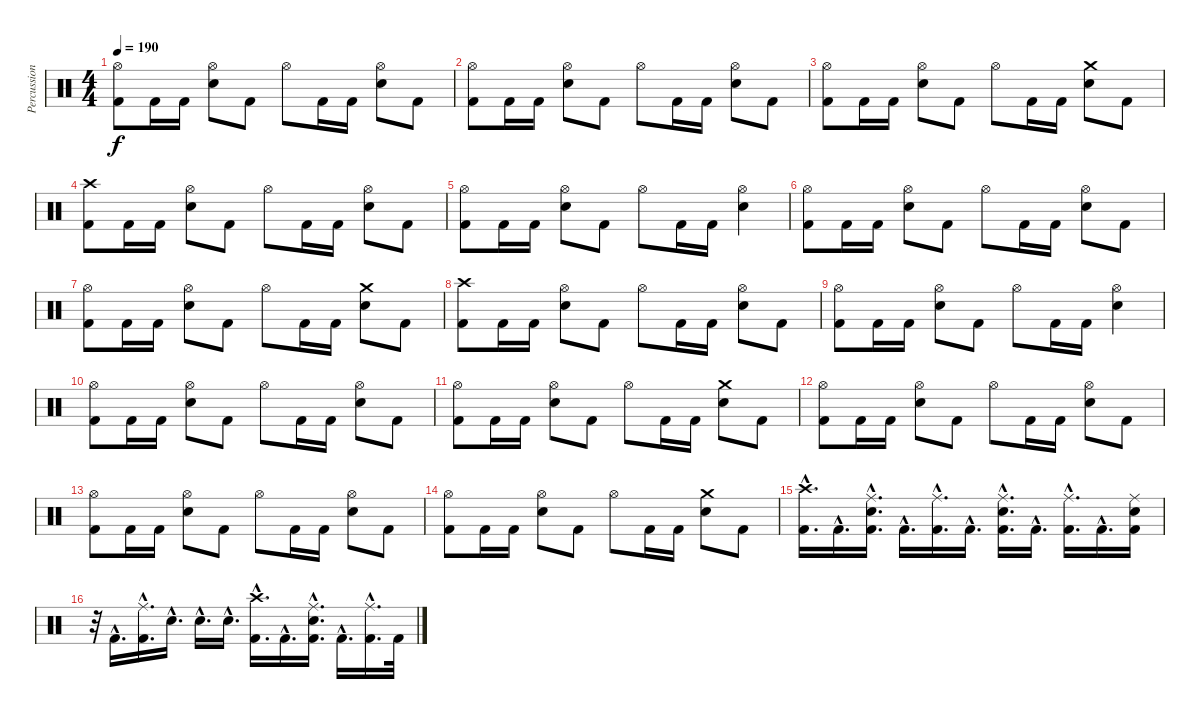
\track ("Percussion" "Percussion") {instrument percussion}
\staff {score}
\articulation defaults
\ts (4 4)
\tempo 190
\clef neutral
\ks c
("Hi-Hat (open)" "Kick (hit) 2").8{dy f} "Kick (hit) 2".16 "Kick (hit) 2".16 ("Hi-Hat (open)" "Snare (hit) 2").8 "Kick (hit) 2".8 "Hi-Hat (open)".8 "Kick (hit) 2".16 "Kick (hit) 2".16 ("Hi-Hat (open)" "Snare (hit) 2").8 "Kick (hit) 2".8 |
("Hi-Hat (open)" "Kick (hit) 2").8 "Kick (hit) 2".16 "Kick (hit) 2".16 ("Hi-Hat (open)" "Snare (hit) 2").8 "Kick (hit) 2".8 "Hi-Hat (open)".8 "Kick (hit) 2".16 "Kick (hit) 2".16 ("Hi-Hat (open)" "Snare (hit) 2").8 "Kick (hit) 2".8 |
("Hi-Hat (open)" "Kick (hit) 2").8 "Kick (hit) 2".16 "Kick (hit) 2".16 ("Hi-Hat (open)" "Snare (hit) 2").8 "Kick (hit) 2".8 "Hi-Hat (open)".8 "Kick (hit) 2".16 "Kick (hit) 2".16 ("Crash medium (hit)" "Snare (hit) 2").8 "Kick (hit) 2".8 |
("Crash high (hit)" "Kick (hit) 2").8 "Kick (hit) 2".16 "Kick (hit) 2".16 ("Hi-Hat (open)" "Snare (hit) 2").8 "Kick (hit) 2".8 "Hi-Hat (open)".8 "Kick (hit) 2".16 "Kick (hit) 2".16 ("Hi-Hat (open)" "Snare (hit) 2").8 "Kick (hit) 2".8 |
("Hi-Hat (open)" "Kick (hit) 2").8 "Kick (hit) 2".16 "Kick (hit) 2".16 ("Hi-Hat (open)" "Snare (hit) 2").8 "Kick (hit) 2".8 "Hi-Hat (open)".8 "Kick (hit) 2".16 "Kick (hit) 2".16 ("Hi-Hat (open)" "Snare (hit) 2").4 |
("Hi-Hat (open)" "Kick (hit) 2").8 "Kick (hit) 2".16 "Kick (hit) 2".16 ("Hi-Hat (open)" "Snare (hit) 2").8 "Kick (hit) 2".8 "Hi-Hat (open)".8 "Kick (hit) 2".16 "Kick (hit) 2".16 ("Hi-Hat (open)" "Snare (hit) 2").8 "Kick (hit) 2".8 |
("Hi-Hat (open)" "Kick (hit) 2").8 "Kick (hit) 2".16 "Kick (hit) 2".16 ("Hi-Hat (open)" "Snare (hit) 2").8 "Kick (hit) 2".8 "Hi-Hat (open)".8 "Kick (hit) 2".16 "Kick (hit) 2".16 ("Crash medium (hit)" "Snare (hit) 2").8 "Kick (hit) 2".8 |
("Crash high (hit)" "Kick (hit) 2").8 "Kick (hit) 2".16 "Kick (hit) 2".16 ("Hi-Hat (open)" "Snare (hit) 2").8 "Kick (hit) 2".8 "Hi-Hat (open)".8 "Kick (hit) 2".16 "Kick (hit) 2".16 ("Hi-Hat (open)" "Snare (hit) 2").8 "Kick (hit) 2".8 |
("Hi-Hat (open)" "Kick (hit) 2").8 "Kick (hit) 2".16 "Kick (hit) 2".16 ("Hi-Hat (open)" "Snare (hit) 2").8 "Kick (hit) 2".8 "Hi-Hat (open)".8 "Kick (hit) 2".16 "Kick (hit) 2".16 ("Hi-Hat (open)" "Snare (hit) 2").4 |
("Hi-Hat (open)" "Kick (hit) 2").8 "Kick (hit) 2".16 "Kick (hit) 2".16 ("Hi-Hat (open)" "Snare (hit) 2").8 "Kick (hit) 2".8 "Hi-Hat (open)".8 "Kick (hit) 2".16 "Kick (hit) 2".16 ("Hi-Hat (open)" "Snare (hit) 2").8 "Kick (hit) 2".8 |
("Hi-Hat (open)" "Kick (hit) 2").8 "Kick (hit) 2".16 "Kick (hit) 2".16 ("Hi-Hat (open)" "Snare (hit) 2").8 "Kick (hit) 2".8 "Hi-Hat (open)".8 "Kick (hit) 2".16 "Kick (hit) 2".16 ("Crash medium (hit)" "Snare (hit) 2").8 "Kick (hit) 2".8 |
("Hi-Hat (open)" "Kick (hit) 2").8 "Kick (hit) 2".16 "Kick (hit) 2".16 ("Hi-Hat (open)" "Snare (hit) 2").8 "Kick (hit) 2".8 "Hi-Hat (open)".8 "Kick (hit) 2".16 "Kick (hit) 2".16 ("Hi-Hat (open)" "Snare (hit) 2").8 "Kick (hit) 2".8 |
("Hi-Hat (open)" "Kick (hit) 2").8 "Kick (hit) 2".16 "Kick (hit) 2".16 ("Hi-Hat (open)" "Snare (hit) 2").8 "Kick (hit) 2".8 "Hi-Hat (open)".8 "Kick (hit) 2".16 "Kick (hit) 2".16 ("Hi-Hat (open)" "Snare (hit) 2").8 "Kick (hit) 2".8 |
("Hi-Hat (open)" "Kick (hit) 2").8 "Kick (hit) 2".16 "Kick (hit) 2".16 ("Hi-Hat (open)" "Snare (hit) 2").8 "Kick (hit) 2".8 "Hi-Hat (open)".8 "Kick (hit) 2".16 "Kick (hit) 2".16 ("Crash medium (hit)" "Snare (hit) 2").8 "Kick (hit) 2".8 |
("Crash high (hit)"{hac} "Kick (hit) 2"{hac}).16{d} "Kick (hit) 2"{hac}.16{d} ("Ride (middle)"{hac} "Snare (hit) 2"{hac} "Kick (hit) 2"{hac}).16{d} "Kick (hit) 2"{hac}.16{d} ("Ride (middle)"{hac} "Kick (hit) 2"{hac}).16{d} "Kick (hit) 2"{hac}.16{d} ("Ride (middle)"{hac} "Snare (hit) 2"{hac} "Kick (hit) 2"{hac}).16{d} "Kick (hit) 2"{hac}.16{d} ("Ride (middle)"{hac} "Kick (hit) 2"{hac}).16{d} "Kick (hit) 2"{hac}.16{d} ("Ride (middle)" "Snare (hit) 2" "Kick (hit) 2").16 |
r.32 "Kick (hit) 2"{hac}.16{d} ("Ride (middle)"{hac} "Kick (hit) 2"{hac}).16{d} "Snare (hit) 2"{hac}.16{d} "Snare (hit) 2"{hac}.16{d} "Snare (hit) 2"{hac}.16{d} ("Crash high (hit)"{hac} "Kick (hit) 2"{hac}).16{d} "Kick (hit) 2"{hac}.16{d} ("Ride (middle)"{hac} "Snare (hit) 2"{hac} "Kick (hit) 2"{hac}).16{d} "Kick (hit) 2"{hac}.16{d} ("Ride (middle)"{hac} "Kick (hit) 2"{hac}).16{d} "Kick (hit) 2".32
